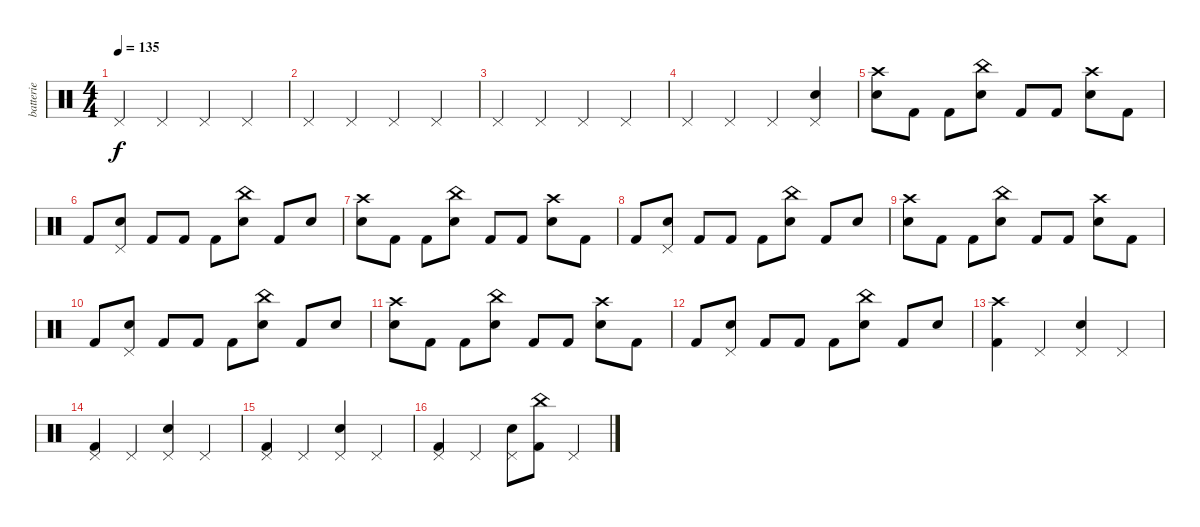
\track ("batterie" "batterie") {instrument percussion}
\staff {score}
\articulation defaults
\ts (4 4)
\tempo 135
\clef neutral
\ks c "Pedal Hi-Hat (hit)".4{dy f} "Pedal Hi-Hat (hit)".4 "Pedal Hi-Hat (hit)".4 "Pedal Hi-Hat (hit)".4
|
"Pedal Hi-Hat (hit)".4 "Pedal Hi-Hat (hit)".4 "Pedal Hi-Hat (hit)".4 "Pedal Hi-Hat (hit)".4 |
"Pedal Hi-Hat (hit)".4 "Pedal Hi-Hat (hit)".4 "Pedal Hi-Hat (hit)".4 "Pedal Hi-Hat (hit)".4 |
"Pedal Hi-Hat (hit)".4 "Pedal Hi-Hat (hit)".4 "Pedal Hi-Hat (hit)".4 ("Snare (hit) 2" "Pedal Hi-Hat (hit)").4 |
("Crash high (hit)" "Snare (hit) 2").8 "Kick (hit) 2".8 "Kick (hit) 2".8 ("China (hit)" "Snare (hit) 2").8 "Kick (hit) 2".8 "Kick (hit) 2".8 ("Crash high (hit)" "Snare (hit) 2").8 "Kick (hit) 2".8 |
"Kick (hit) 2".8 ("Snare (hit) 2" "Pedal Hi-Hat (hit)").8 "Kick (hit) 2".8 "Kick (hit) 2".8 "Kick (hit) 2".8 ("China (hit)" "Snare (hit) 2").8 "Kick (hit) 2".8 "Snare (hit) 2".8 |
("Crash high (hit)" "Snare (hit) 2").8 "Kick (hit) 2".8 "Kick (hit) 2".8 ("China (hit)" "Snare (hit) 2").8 "Kick (hit) 2".8 "Kick (hit) 2".8 ("Crash high (hit)" "Snare (hit) 2").8 "Kick (hit) 2".8 |
"Kick (hit) 2".8 ("Snare (hit) 2" "Pedal Hi-Hat (hit)").8 "Kick (hit) 2".8 "Kick (hit) 2".8 "Kick (hit) 2".8 ("China (hit)" "Snare (hit) 2").8 "Kick (hit) 2".8 "Snare (hit) 2".8 |
("Crash high (hit)" "Snare (hit) 2").8 "Kick (hit) 2".8 "Kick (hit) 2".8 ("China (hit)" "Snare (hit) 2").8 "Kick (hit) 2".8 "Kick (hit) 2".8 ("Crash high (hit)" "Snare (hit) 2").8 "Kick (hit) 2".8 |
"Kick (hit) 2".8 ("Snare (hit) 2" "Pedal Hi-Hat (hit)").8 "Kick (hit) 2".8 "Kick (hit) 2".8 "Kick (hit) 2".8 ("China (hit)" "Snare (hit) 2").8 "Kick (hit) 2".8 "Snare (hit) 2".8 |
("Crash high (hit)" "Snare (hit) 2").8 "Kick (hit) 2".8 "Kick (hit) 2".8 ("China (hit)" "Snare (hit) 2").8 "Kick (hit) 2".8 "Kick (hit) 2".8 ("Crash high (hit)" "Snare (hit) 2").8 "Kick (hit) 2".8 |
"Kick (hit) 2".8 ("Snare (hit) 2" "Pedal Hi-Hat (hit)").8 "Kick (hit) 2".8 "Kick (hit) 2".8 "Kick (hit) 2".8 ("China (hit)" "Snare (hit) 2").8 "Kick (hit) 2".8 "Snare (hit) 2".8 |
("Crash high (hit)" "Kick (hit) 2").4 "Pedal Hi-Hat (hit)".4 ("Snare (hit) 2" "Pedal Hi-Hat (hit)").4 "Pedal Hi-Hat (hit)".4 |
("Kick (hit) 2" "Pedal Hi-Hat (hit)").4 "Pedal Hi-Hat (hit)".4 ("Snare (hit) 2" "Pedal Hi-Hat (hit)").4 "Pedal Hi-Hat (hit)".4 |
("Kick (hit) 2" "Pedal Hi-Hat (hit)").4 "Pedal Hi-Hat (hit)".4 ("Snare (hit) 2" "Pedal Hi-Hat (hit)").4 "Pedal Hi-Hat (hit)".4 |
("Kick (hit) 2" "Pedal Hi-Hat (hit)").4 "Pedal Hi-Hat (hit)".4 ("Snare (hit) 2" "Pedal Hi-Hat (hit)").8 ("China (hit)" "Kick (hit) 2").8 "Pedal Hi-Hat (hit)".4
